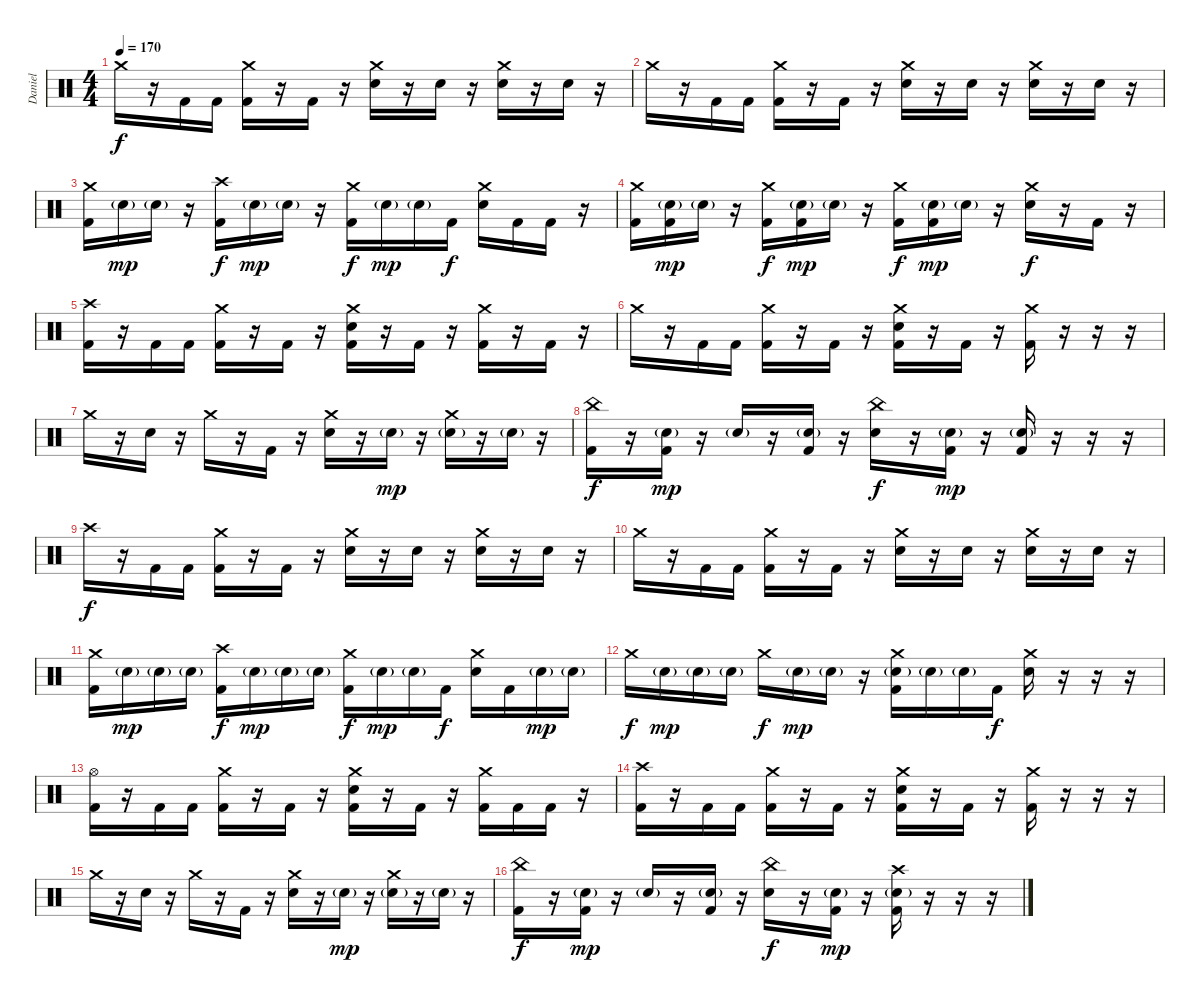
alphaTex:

\track ("Daniel" "Daniel") {instrument percussion}
\staff {score}
\articulation defaults
\ts (4 4)
\tempo 170
\clef neutral
\ks c "Crash medium (hit)".16{dy f}
r.16 "Kick (hit) 2".16 "Kick (hit) 2".16 ("Crash medium (hit)" "Kick (hit) 2").16 r.16 "Kick (hit) 2".16 r.16 ("Crash medium (hit)" "Snare (hit) 2").16 r.16 "Snare (hit) 2".16 r.16 ("Crash medium (hit)" "Snare (hit) 2").16 r.16 "Snare (hit) 2".16 r.16 |
"Crash medium (hit)".16 r.16 "Kick (hit) 2".16 "Kick (hit) 2".16 ("Crash medium (hit)" "Kick (hit) 2").16 r.16 "Kick (hit) 2".16 r.16 ("Crash medium (hit)" "Snare (hit) 2").16 r.16 "Snare (hit) 2".16 r.16 ("Crash medium (hit)" "Snare (hit) 2").16 r.16 "Snare (hit) 2".16 r.16 |
("Crash medium (hit)" "Kick (hit) 2").16 "Snare (hit) 2"{g}.16{dy mp} "Snare (hit) 2"{g}.16 r.16 ("Crash high (hit)" "Kick (hit) 2").16{dy f} "Snare (hit) 2"{g}.16{dy mp} "Snare (hit) 2"{g}.16 r.16 ("Crash medium (hit)" "Kick (hit) 2").16{dy f} "Snare (hit) 2"{g}.16{dy mp} "Snare (hit) 2"{g}.16 "Kick (hit) 2".16{dy f} ("Crash medium (hit)" "Snare (hit) 2").16 "Kick (hit) 2".16 "Kick (hit) 2".16 r.16 |
("Crash medium (hit)" "Kick (hit) 2").16 ("Snare (hit) 2"{g} "Kick (hit) 2").16{dy mp} "Snare (hit) 2"{g}.16 r.16 ("Crash medium (hit)" "Kick (hit) 2").16{dy f} ("Snare (hit) 2"{g} "Kick (hit) 2").16{dy mp} "Snare (hit) 2"{g}.16 r.16 ("Crash medium (hit)" "Kick (hit) 2").16{dy f} ("Snare (hit) 2"{g} "Kick (hit) 2").16{dy mp} "Snare (hit) 2"{g}.16 r.16 ("Crash medium (hit)" "Snare (hit) 2").16{dy f} r.16 "Kick (hit) 2".16 r.16 |
("Crash high (hit)" "Kick (hit) 2").16 r.16 "Kick (hit) 2".16 "Kick (hit) 2".16 ("Crash medium (hit)" "Kick (hit) 2").16 r.16 "Kick (hit) 2".16 r.16 ("Crash medium (hit)" "Snare (hit) 2" "Kick (hit) 2").16 r.16 "Kick (hit) 2".16 r.16 ("Crash medium (hit)" "Kick (hit) 2").16 r.16 "Kick (hit) 2".16 r.16 |
"Crash medium (hit)".16 r.16 "Kick (hit) 2".16 "Kick (hit) 2".16 ("Crash medium (hit)" "Kick (hit) 2").16 r.16 "Kick (hit) 2".16 r.16 ("Crash medium (hit)" "Snare (hit) 2" "Kick (hit) 2").16 r.16 "Kick (hit) 2".16 r.16 ("Crash medium (hit)" "Kick (hit) 2").16 r.16 r.16 r.16 |
"Crash medium (hit)".16 r.16 "Snare (hit) 2".16 r.16 "Crash medium (hit)".16 r.16 "Kick (hit) 2".16 r.16 ("Crash medium (hit)" "Snare (hit) 2").16 r.16 "Snare (hit) 2"{g}.16{dy mp} r.16 ("Crash medium (hit)" "Snare (hit) 2"{g}).16 r.16 "Snare (hit) 2"{g}.16 r.16 |
("China (hit)" "Kick (hit) 2").16{dy f} r.16 ("Snare (hit) 2"{g} "Kick (hit) 2").16{dy mp} r.16 "Snare (hit) 2"{g}.16 r.16 ("Snare (hit) 2"{g} "Kick (hit) 2").16 r.16 ("China (hit)" "Snare (hit) 2").16{dy f} r.16 ("Snare (hit) 2"{g} "Kick (hit) 2").16{dy mp} r.16 ("Snare (hit) 2"{g} "Kick (hit) 2").16 r.16 r.16 r.16 |
"Crash high (hit)".16{dy f} r.16 "Kick (hit) 2".16 "Kick (hit) 2".16 ("Crash medium (hit)" "Kick (hit) 2").16 r.16 "Kick (hit) 2".16 r.16 ("Crash medium (hit)" "Snare (hit) 2").16 r.16 "Snare (hit) 2".16 r.16 ("Crash medium (hit)" "Snare (hit) 2").16 r.16 "Snare (hit) 2".16 r.16 |
"Crash medium (hit)".16 r.16 "Kick (hit) 2".16 "Kick (hit) 2".16 ("Crash medium (hit)" "Kick (hit) 2").16 r.16 "Kick (hit) 2".16 r.16 ("Crash medium (hit)" "Snare (hit) 2").16 r.16 "Snare (hit) 2".16 r.16 ("Crash medium (hit)" "Snare (hit) 2").16 r.16 "Snare (hit) 2".16 r.16 |
("Crash medium (hit)" "Kick (hit) 2").16 "Snare (hit) 2"{g}.16{dy mp} "Snare (hit) 2"{g}.16 "Snare (hit) 2"{g}.16 ("Crash high (hit)" "Kick (hit) 2").16{dy f} "Snare (hit) 2"{g}.16{dy mp} "Snare (hit) 2"{g}.16 "Snare (hit) 2"{g}.16 ("Crash medium (hit)" "Kick (hit) 2").16{dy f} "Snare (hit) 2"{g}.16{dy mp} "Snare (hit) 2"{g}.16 "Kick (hit) 2".16{dy f} ("Crash medium (hit)" "Snare (hit) 2").16 "Kick (hit) 2".16 "Snare (hit) 2"{g}.16{dy mp} "Snare (hit) 2"{g}.16 |
"Crash medium (hit)".16{dy f} "Snare (hit) 2"{g}.16{dy mp} "Snare (hit) 2"{g}.16 "Snare (hit) 2"{g}.16 "Crash medium (hit)".16{dy f} "Snare (hit) 2"{g}.16{dy mp} "Snare (hit) 2"{g}.16 r.16 ("Crash medium (hit)" "Snare (hit) 2"{g} "Kick (hit) 2").16 "Snare (hit) 2"{g}.16 "Snare (hit) 2"{g}.16 "Kick (hit) 2".16{dy f} ("Crash medium (hit)" "Snare (hit) 2").16 r.16 r.16 r.16 |
("Hi-Hat (open)" "Kick (hit) 2").16 r.16 "Kick (hit) 2".16 "Kick (hit) 2".16 ("Crash medium (hit)" "Kick (hit) 2").16 r.16 "Kick (hit) 2".16 r.16 ("Crash medium (hit)" "Snare (hit) 2" "Kick (hit) 2").16 r.16 "Kick (hit) 2".16 r.16 ("Crash medium (hit)" "Kick (hit) 2").16 "Kick (hit) 2".16 "Kick (hit) 2".16 r.16 |
("Crash high (hit)" "Kick (hit) 2").16 r.16 "Kick (hit) 2".16 "Kick (hit) 2".16 ("Crash medium (hit)" "Kick (hit) 2").16 r.16 "Kick (hit) 2".16 r.16 ("Crash medium (hit)" "Snare (hit) 2" "Kick (hit) 2").16 r.16 "Kick (hit) 2".16 r.16 ("Crash medium (hit)" "Kick (hit) 2").16 r.16 r.16 r.16 |
"Crash medium (hit)".16 r.16 "Snare (hit) 2".16 r.16 "Crash medium (hit)".16 r.16 "Kick (hit) 2".16 r.16 ("Crash medium (hit)" "Snare (hit) 2").16 r.16 "Snare (hit) 2"{g}.16{dy mp} r.16 ("Crash medium (hit)" "Snare (hit) 2"{g}).16 r.16 "Snare (hit) 2"{g}.16 r.16 |
("China (hit)" "Kick (hit) 2").16{dy f} r.16 ("Snare (hit) 2"{g} "Kick (hit) 2").16{dy mp} r.16 "Snare (hit) 2"{g}.16 r.16 ("Snare (hit) 2"{g} "Kick (hit) 2").16 r.16 ("China (hit)" "Snare (hit) 2").16{dy f} r.16 ("Snare (hit) 2"{g} "Kick (hit) 2").16{dy mp} r.16 ("Crash high (hit)" "Snare (hit) 2"{g} "Kick (hit) 2").16 r.16 r.16 r.16
